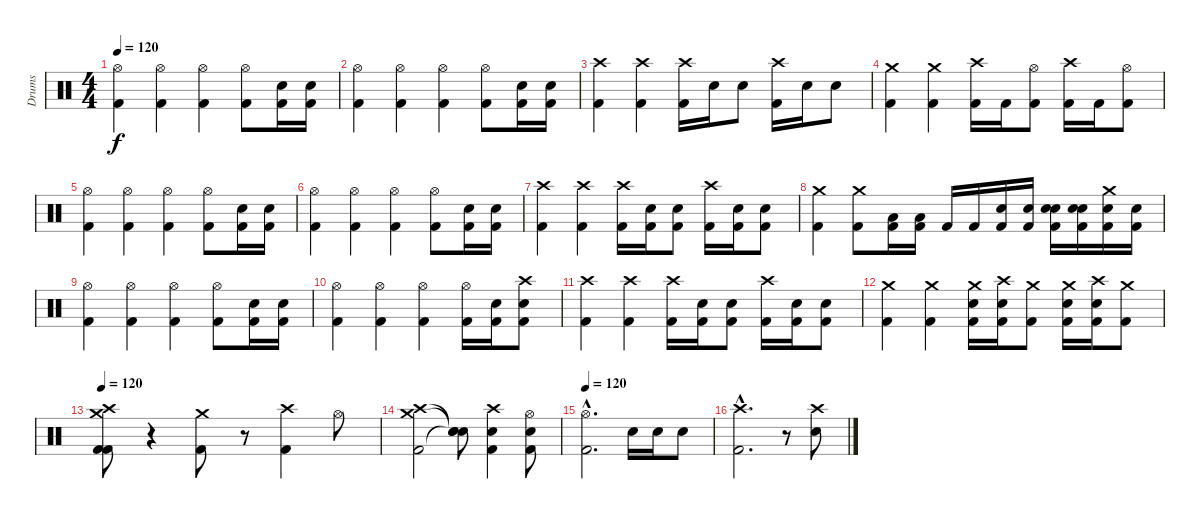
\track ("Drums" "Drums") {instrument percussion}
\staff {score}
\articulation defaults
\ts (4 4)
\tempo 120
\clef neutral
\ks c
("Hi-Hat (open)" "Kick (hit) 2").4{dy f} ("Hi-Hat (open)" "Kick (hit) 2").4 ("Hi-Hat (open)" "Kick (hit) 2").4 ("Hi-Hat (open)" "Kick (hit) 2").8 ("Snare (hit) 2" "Kick (hit) 2").16 ("Snare (hit) 2" "Kick (hit) 2").16 |
("Hi-Hat (open)" "Kick (hit) 2").4 ("Hi-Hat (open)" "Kick (hit) 2").4 ("Hi-Hat (open)" "Kick (hit) 2").4 ("Hi-Hat (open)" "Kick (hit) 2").8 ("Snare (hit) 2" "Kick (hit) 2").16 ("Snare (hit) 2" "Kick (hit) 2").16 |
("Crash high (hit)" "Kick (hit) 2").4 ("Crash high (hit)" "Kick (hit) 2").4 ("Crash high (hit)" "Kick (hit) 2").16 "Snare (hit) 2".16 "Snare (hit) 2".8 ("Crash high (hit)" "Kick (hit) 2").16 "Snare (hit) 2".16 "Snare (hit) 2".8 |
("Crash medium (hit)" "Kick (hit) 2").4 ("Crash medium (hit)" "Kick (hit) 2").4 ("Crash high (hit)" "Kick (hit) 2").16 "Kick (hit) 2".16 ("Hi-Hat (open)" "Kick (hit) 2").8 ("Crash high (hit)" "Kick (hit) 2").16 "Kick (hit) 2".16 ("Hi-Hat (open)" "Kick (hit) 2").8 |
("Hi-Hat (open)" "Kick (hit) 2").4 ("Hi-Hat (open)" "Kick (hit) 2").4 ("Hi-Hat (open)" "Kick (hit) 2").4 ("Hi-Hat (open)" "Kick (hit) 2").8 ("Snare (hit) 2" "Kick (hit) 2").16 ("Snare (hit) 2" "Kick (hit) 2").16 |
("Hi-Hat (open)" "Kick (hit) 2").4 ("Hi-Hat (open)" "Kick (hit) 2").4 ("Hi-Hat (open)" "Kick (hit) 2").4 ("Hi-Hat (open)" "Kick (hit) 2").8 ("Snare (hit) 2" "Kick (hit) 2").16 ("Snare (hit) 2" "Kick (hit) 2").16 |
("Crash high (hit)" "Kick (hit) 2").4 ("Crash high (hit)" "Kick (hit) 2").4 ("Crash high (hit)" "Kick (hit) 2").16 ("Snare (hit) 2" "Kick (hit) 2").16 ("Snare (hit) 2" "Kick (hit) 2").8 ("Crash high (hit)" "Kick (hit) 2").16 ("Snare (hit) 2" "Kick (hit) 2").16 ("Snare (hit) 2" "Kick (hit) 2").8 |
("Crash medium (hit)" "Kick (hit) 2").4 ("Crash medium (hit)" "Kick (hit) 2").8 ("Low Tom (hit)" "Kick (hit) 2").16 ("Low Tom (hit)" "Kick (hit) 2").16 "Kick (hit) 2".16 "Kick (hit) 2".16 ("Snare (hit) 2" "Kick (hit) 2").16 ("Snare (hit) 2" "Kick (hit) 2").16 ("Snare (hit) 2" "Snare (hit) 2" "Kick (hit) 2").16 ("Snare (hit) 2" "Snare (hit) 2" "Kick (hit) 2").16 ("Crash medium (hit)" "Snare (hit) 2" "Kick (hit) 2").16 ("Snare (hit) 2" "Kick (hit) 2").16 |
("Hi-Hat (open)" "Kick (hit) 2").4 ("Hi-Hat (open)" "Kick (hit) 2").4 ("Hi-Hat (open)" "Kick (hit) 2").4 ("Hi-Hat (open)" "Kick (hit) 2").8 ("Snare (hit) 2" "Kick (hit) 2").16 ("Snare (hit) 2" "Kick (hit) 2").16 |
("Hi-Hat (open)" "Kick (hit) 2").4 ("Hi-Hat (open)" "Kick (hit) 2").4 ("Hi-Hat (open)" "Kick (hit) 2").4 ("Hi-Hat (open)" "Kick (hit) 2").16 ("Snare (hit) 2" "Kick (hit) 2").16 ("Crash high (hit)" "Snare (hit) 2" "Kick (hit) 2").8 |
("Crash high (hit)" "Kick (hit) 2").4 ("Crash high (hit)" "Kick (hit) 2").4 ("Crash high (hit)" "Kick (hit) 2").16 ("Snare (hit) 2" "Kick (hit) 2").16 ("Snare (hit) 2" "Kick (hit) 2").8 ("Crash high (hit)" "Kick (hit) 2").16 ("Snare (hit) 2" "Kick (hit) 2").16 ("Snare (hit) 2" "Kick (hit) 2").8 |
("Crash medium (hit)" "Kick (hit) 2").4 ("Crash medium (hit)" "Kick (hit) 2").4 ("Crash medium (hit)" "Snare (hit) 2" "Kick (hit) 2").16 ("Crash high (hit)" "Snare (hit) 2" "Kick (hit) 2").16 ("Crash medium (hit)" "Kick (hit) 2").8 ("Crash medium (hit)" "Snare (hit) 2" "Kick (hit) 2").16 ("Crash high (hit)" "Snare (hit) 2" "Kick (hit) 2").16 ("Crash medium (hit)" "Kick (hit) 2").8 |
\tempo 120
("Crash medium (hit)" "Crash high (hit)" "Kick (hit) 2" "Kick (hit) 2").8 r.4 ("Crash medium (hit)" "Kick (hit) 2").8 r.8 ("Crash high (hit)" "Kick (hit) 2").4 "Hi-Hat (open)".8 |
("Crash medium (hit)" "Crash high (hit)" "Kick (hit) 2").2 ("Snare (hit)"{t} "Snare (hit)"{t} "Snare (hit)"{t}).8 ("Crash high (hit)" "Snare (hit) 2" "Kick (hit) 2").4 ("Hi-Hat (open)" "Snare (hit) 2" "Kick (hit) 2").8 |
\tempo 120
("Hi-Hat (open)"{hac} "Kick (hit) 2"{hac}).2{d} "Snare (hit) 2".16 "Snare (hit) 2".16 "Snare (hit) 2".8 |
("Crash high (hit)"{hac} "Kick (hit) 2"{hac}).2{d} r.8 ("Crash high (hit)" "Snare (hit) 2").8
